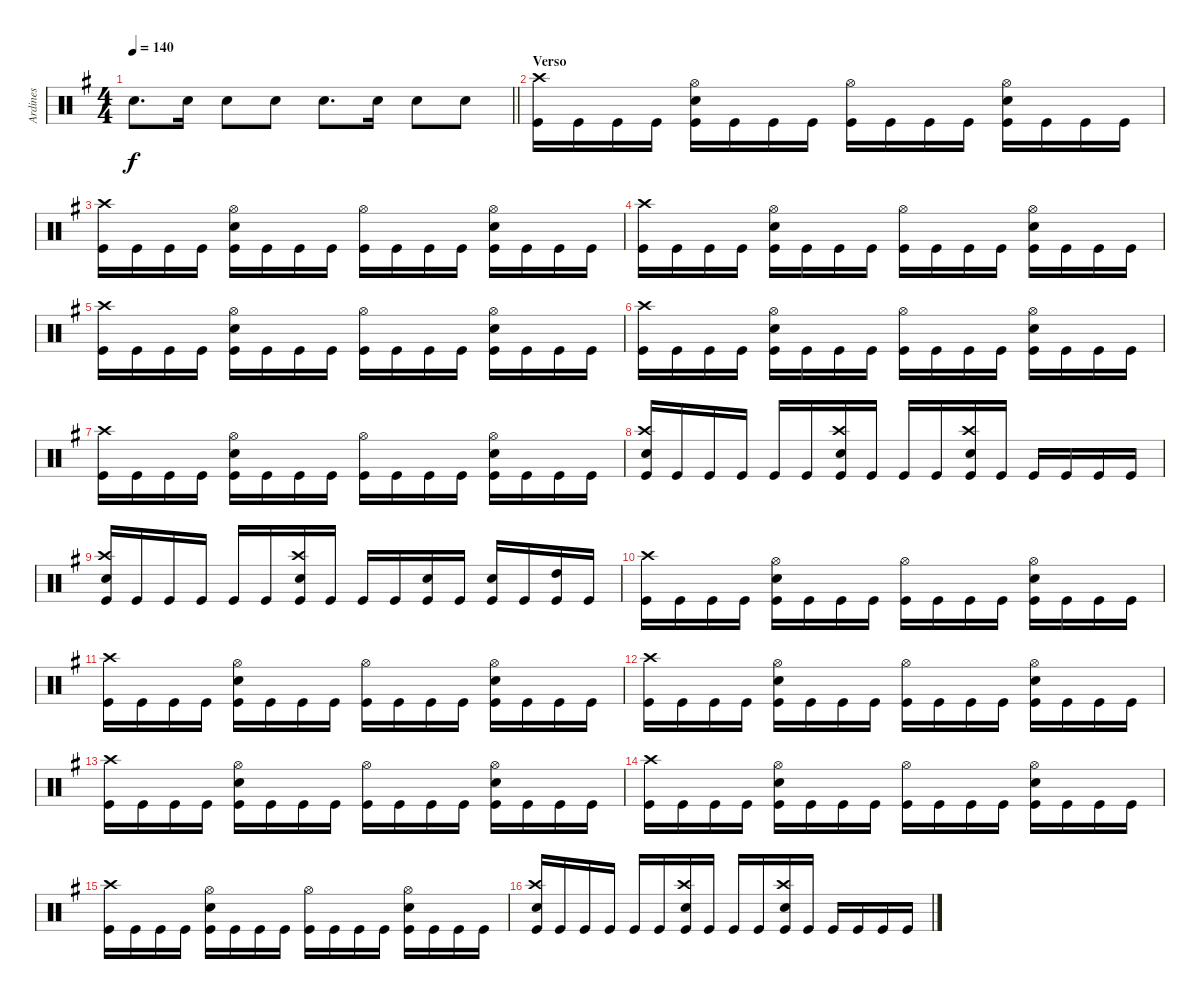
\track ("Ardines" "Ardines") {instrument percussion}
\staff {score}
\articulation defaults
\ts (4 4)
\tempo 140
\clef neutral
\barLineRight lightlight
\ks g "Electric Snare (hit)".8{d dy f} "Electric Snare (hit)".16 "Electric Snare (hit)".8 "Electric Snare (hit)".8 "Electric Snare (hit)".8{d} "Electric Snare (hit)".16 "Electric Snare (hit)".8 "Electric Snare (hit)".8
|
\section ("" "Verso")
("Crash high (hit)" "Kick (hit)").16 "Kick (hit)".16 "Kick (hit)".16 "Kick (hit)".16 ("Hi-Hat (open)" "Electric Snare (hit)" "Kick (hit)").16 "Kick (hit)".16 "Kick (hit)".16 "Kick (hit)".16 ("Hi-Hat (open)" "Kick (hit)").16 "Kick (hit)".16 "Kick (hit)".16 "Kick (hit)".16 ("Hi-Hat (open)" "Electric Snare (hit)" "Kick (hit)").16 "Kick (hit)".16 "Kick (hit)".16 "Kick (hit)".16 |
("Crash high (hit)" "Kick (hit)").16 "Kick (hit)".16 "Kick (hit)".16 "Kick (hit)".16 ("Hi-Hat (open)" "Electric Snare (hit)" "Kick (hit)").16 "Kick (hit)".16 "Kick (hit)".16 "Kick (hit)".16 ("Hi-Hat (open)" "Kick (hit)").16 "Kick (hit)".16 "Kick (hit)".16 "Kick (hit)".16 ("Hi-Hat (open)" "Electric Snare (hit)" "Kick (hit)").16 "Kick (hit)".16 "Kick (hit)".16 "Kick (hit)".16 |
("Crash high (hit)" "Kick (hit)").16 "Kick (hit)".16 "Kick (hit)".16 "Kick (hit)".16 ("Hi-Hat (open)" "Electric Snare (hit)" "Kick (hit)").16 "Kick (hit)".16 "Kick (hit)".16 "Kick (hit)".16 ("Hi-Hat (open)" "Kick (hit)").16 "Kick (hit)".16 "Kick (hit)".16 "Kick (hit)".16 ("Hi-Hat (open)" "Electric Snare (hit)" "Kick (hit)").16 "Kick (hit)".16 "Kick (hit)".16 "Kick (hit)".16 |
("Crash high (hit)" "Kick (hit)").16 "Kick (hit)".16 "Kick (hit)".16 "Kick (hit)".16 ("Hi-Hat (open)" "Electric Snare (hit)" "Kick (hit)").16 "Kick (hit)".16 "Kick (hit)".16 "Kick (hit)".16 ("Hi-Hat (open)" "Kick (hit)").16 "Kick (hit)".16 "Kick (hit)".16 "Kick (hit)".16 ("Hi-Hat (open)" "Electric Snare (hit)" "Kick (hit)").16 "Kick (hit)".16 "Kick (hit)".16 "Kick (hit)".16 |
("Crash high (hit)" "Kick (hit)").16 "Kick (hit)".16 "Kick (hit)".16 "Kick (hit)".16 ("Hi-Hat (open)" "Electric Snare (hit)" "Kick (hit)").16 "Kick (hit)".16 "Kick (hit)".16 "Kick (hit)".16 ("Hi-Hat (open)" "Kick (hit)").16 "Kick (hit)".16 "Kick (hit)".16 "Kick (hit)".16 ("Hi-Hat (open)" "Electric Snare (hit)" "Kick (hit)").16 "Kick (hit)".16 "Kick (hit)".16 "Kick (hit)".16 |
("Crash high (hit)" "Kick (hit)").16 "Kick (hit)".16 "Kick (hit)".16 "Kick (hit)".16 ("Hi-Hat (open)" "Electric Snare (hit)" "Kick (hit)").16 "Kick (hit)".16 "Kick (hit)".16 "Kick (hit)".16 ("Hi-Hat (open)" "Kick (hit)").16 "Kick (hit)".16 "Kick (hit)".16 "Kick (hit)".16 ("Hi-Hat (open)" "Electric Snare (hit)" "Kick (hit)").16 "Kick (hit)".16 "Kick (hit)".16 "Kick (hit)".16 |
("Crash high (hit)" "Electric Snare (hit)" "Kick (hit)").16 "Kick (hit)".16 "Kick (hit)".16 "Kick (hit)".16 "Kick (hit)".16 "Kick (hit)".16 ("Crash high (hit)" "Electric Snare (hit)" "Kick (hit)").16 "Kick (hit)".16 "Kick (hit)".16 "Kick (hit)".16 ("Crash high (hit)" "Electric Snare (hit)" "Kick (hit)").16 "Kick (hit)".16 "Kick (hit)".16 "Kick (hit)".16 "Kick (hit)".16 "Kick (hit)".16 |
("Crash high (hit)" "Electric Snare (hit)" "Kick (hit)").16 "Kick (hit)".16 "Kick (hit)".16 "Kick (hit)".16 "Kick (hit)".16 "Kick (hit)".16 ("Crash high (hit)" "Electric Snare (hit)" "Kick (hit)").16 "Kick (hit)".16 "Kick (hit)".16 "Kick (hit)".16 ("Electric Snare (hit)" "Kick (hit)").16 "Kick (hit)".16 ("Electric Snare (hit)" "Kick (hit)").16 "Kick (hit)".16 ("High Tom (hit)" "Kick (hit)").16 "Kick (hit)".16 |
("Crash high (hit)" "Kick (hit)").16 "Kick (hit)".16 "Kick (hit)".16 "Kick (hit)".16 ("Hi-Hat (open)" "Electric Snare (hit)" "Kick (hit)").16 "Kick (hit)".16 "Kick (hit)".16 "Kick (hit)".16 ("Hi-Hat (open)" "Kick (hit)").16 "Kick (hit)".16 "Kick (hit)".16 "Kick (hit)".16 ("Hi-Hat (open)" "Electric Snare (hit)" "Kick (hit)").16 "Kick (hit)".16 "Kick (hit)".16 "Kick (hit)".16 |
("Crash high (hit)" "Kick (hit)").16 "Kick (hit)".16 "Kick (hit)".16 "Kick (hit)".16 ("Hi-Hat (open)" "Electric Snare (hit)" "Kick (hit)").16 "Kick (hit)".16 "Kick (hit)".16 "Kick (hit)".16 ("Hi-Hat (open)" "Kick (hit)").16 "Kick (hit)".16 "Kick (hit)".16 "Kick (hit)".16 ("Hi-Hat (open)" "Electric Snare (hit)" "Kick (hit)").16 "Kick (hit)".16 "Kick (hit)".16 "Kick (hit)".16 |
("Crash high (hit)" "Kick (hit)").16 "Kick (hit)".16 "Kick (hit)".16 "Kick (hit)".16 ("Hi-Hat (open)" "Electric Snare (hit)" "Kick (hit)").16 "Kick (hit)".16 "Kick (hit)".16 "Kick (hit)".16 ("Hi-Hat (open)" "Kick (hit)").16 "Kick (hit)".16 "Kick (hit)".16 "Kick (hit)".16 ("Hi-Hat (open)" "Electric Snare (hit)" "Kick (hit)").16 "Kick (hit)".16 "Kick (hit)".16 "Kick (hit)".16 |
("Crash high (hit)" "Kick (hit)").16 "Kick (hit)".16 "Kick (hit)".16 "Kick (hit)".16 ("Hi-Hat (open)" "Electric Snare (hit)" "Kick (hit)").16 "Kick (hit)".16 "Kick (hit)".16 "Kick (hit)".16 ("Hi-Hat (open)" "Kick (hit)").16 "Kick (hit)".16 "Kick (hit)".16 "Kick (hit)".16 ("Hi-Hat (open)" "Electric Snare (hit)" "Kick (hit)").16 "Kick (hit)".16 "Kick (hit)".16 "Kick (hit)".16 |
("Crash high (hit)" "Kick (hit)").16 "Kick (hit)".16 "Kick (hit)".16 "Kick (hit)".16 ("Hi-Hat (open)" "Electric Snare (hit)" "Kick (hit)").16 "Kick (hit)".16 "Kick (hit)".16 "Kick (hit)".16 ("Hi-Hat (open)" "Kick (hit)").16 "Kick (hit)".16 "Kick (hit)".16 "Kick (hit)".16 ("Hi-Hat (open)" "Electric Snare (hit)" "Kick (hit)").16 "Kick (hit)".16 "Kick (hit)".16 "Kick (hit)".16 |
("Crash high (hit)" "Kick (hit)").16 "Kick (hit)".16 "Kick (hit)".16 "Kick (hit)".16 ("Hi-Hat (open)" "Electric Snare (hit)" "Kick (hit)").16 "Kick (hit)".16 "Kick (hit)".16 "Kick (hit)".16 ("Hi-Hat (open)" "Kick (hit)").16 "Kick (hit)".16 "Kick (hit)".16 "Kick (hit)".16 ("Hi-Hat (open)" "Electric Snare (hit)" "Kick (hit)").16 "Kick (hit)".16 "Kick (hit)".16 "Kick (hit)".16 |
("Crash high (hit)" "Electric Snare (hit)" "Kick (hit)").16 "Kick (hit)".16 "Kick (hit)".16 "Kick (hit)".16 "Kick (hit)".16 "Kick (hit)".16 ("Crash high (hit)" "Electric Snare (hit)" "Kick (hit)").16 "Kick (hit)".16 "Kick (hit)".16 "Kick (hit)".16 ("Crash high (hit)" "Electric Snare (hit)" "Kick (hit)").16 "Kick (hit)".16 "Kick (hit)".16 "Kick (hit)".16 "Kick (hit)".16 "Kick (hit)".16
